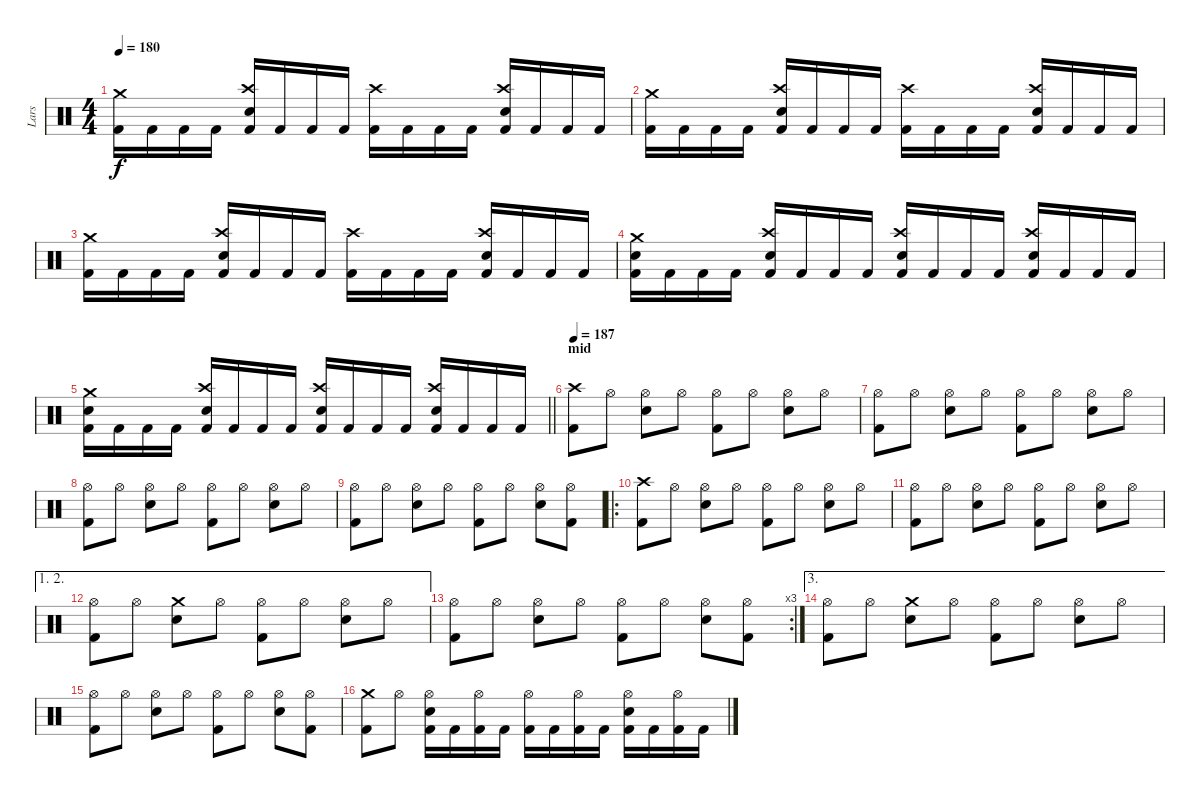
\track ("Lars" "Lars") {instrument percussion}
\staff {score}
\articulation defaults
\ts (4 4)
\tempo 180
\clef neutral
\ks c
("Crash medium (hit)" "Kick (hit) 2").16{dy f} "Kick (hit) 2".16 "Kick (hit) 2".16 "Kick (hit) 2".16 ("Crash high (hit)" "Snare (hit) 2" "Kick (hit) 2").16 "Kick (hit) 2".16 "Kick (hit) 2".16 "Kick (hit) 2".16 ("Crash high (hit)" "Kick (hit) 2").16 "Kick (hit) 2".16 "Kick (hit) 2".16 "Kick (hit) 2".16 ("Crash high (hit)" "Snare (hit) 2" "Kick (hit) 2").16 "Kick (hit) 2".16 "Kick (hit) 2".16 "Kick (hit) 2".16 |
("Crash medium (hit)" "Kick (hit) 2").16 "Kick (hit) 2".16 "Kick (hit) 2".16 "Kick (hit) 2".16 ("Crash high (hit)" "Snare (hit) 2" "Kick (hit) 2").16 "Kick (hit) 2".16 "Kick (hit) 2".16 "Kick (hit) 2".16 ("Crash high (hit)" "Kick (hit) 2").16 "Kick (hit) 2".16 "Kick (hit) 2".16 "Kick (hit) 2".16 ("Crash high (hit)" "Snare (hit) 2" "Kick (hit) 2").16 "Kick (hit) 2".16 "Kick (hit) 2".16 "Kick (hit) 2".16 |
("Crash medium (hit)" "Kick (hit) 2").16 "Kick (hit) 2".16 "Kick (hit) 2".16 "Kick (hit) 2".16 ("Crash high (hit)" "Snare (hit) 2" "Kick (hit) 2").16 "Kick (hit) 2".16 "Kick (hit) 2".16 "Kick (hit) 2".16 ("Crash high (hit)" "Kick (hit) 2").16 "Kick (hit) 2".16 "Kick (hit) 2".16 "Kick (hit) 2".16 ("Crash high (hit)" "Snare (hit) 2" "Kick (hit) 2").16 "Kick (hit) 2".16 "Kick (hit) 2".16 "Kick (hit) 2".16 |
("Crash medium (hit)" "Snare (hit) 2" "Kick (hit) 2").16 "Kick (hit) 2".16 "Kick (hit) 2".16 "Kick (hit) 2".16 ("Crash high (hit)" "Snare (hit) 2" "Kick (hit) 2").16 "Kick (hit) 2".16 "Kick (hit) 2".16 "Kick (hit) 2".16 ("Crash high (hit)" "Snare (hit) 2" "Kick (hit) 2").16 "Kick (hit) 2".16 "Kick (hit) 2".16 "Kick (hit) 2".16 ("Crash high (hit)" "Snare (hit) 2" "Kick (hit) 2").16 "Kick (hit) 2".16 "Kick (hit) 2".16 "Kick (hit) 2".16 |
\barLineRight lightlight
("Crash medium (hit)" "Snare (hit) 2" "Kick (hit) 2").16 "Kick (hit) 2".16 "Kick (hit) 2".16 "Kick (hit) 2".16 ("Crash high (hit)" "Snare (hit) 2" "Kick (hit) 2").16 "Kick (hit) 2".16 "Kick (hit) 2".16 "Kick (hit) 2".16 ("Crash high (hit)" "Snare (hit) 2" "Kick (hit) 2").16 "Kick (hit) 2".16 "Kick (hit) 2".16 "Kick (hit) 2".16 ("Crash high (hit)" "Snare (hit) 2" "Kick (hit) 2").16 "Kick (hit) 2".16 "Kick (hit) 2".16 "Kick (hit) 2".16 |
\section ("" "mid")
\tempo 187
("Crash high (hit)" "Kick (hit) 2").8 "Hi-Hat (open)".8 ("Hi-Hat (open)" "Snare (hit) 2").8 "Hi-Hat (open)".8 ("Hi-Hat (open)" "Kick (hit) 2").8 "Hi-Hat (open)".8 ("Hi-Hat (open)" "Snare (hit) 2").8 "Hi-Hat (open)".8 |
("Hi-Hat (open)" "Kick (hit) 2").8 "Hi-Hat (open)".8 ("Hi-Hat (open)" "Snare (hit) 2").8 "Hi-Hat (open)".8 ("Hi-Hat (open)" "Kick (hit) 2").8 "Hi-Hat (open)".8 ("Hi-Hat (open)" "Snare (hit) 2").8 "Hi-Hat (open)".8 |
("Hi-Hat (open)" "Kick (hit) 2").8 "Hi-Hat (open)".8 ("Hi-Hat (open)" "Snare (hit) 2").8 "Hi-Hat (open)".8 ("Hi-Hat (open)" "Kick (hit) 2").8 "Hi-Hat (open)".8 ("Hi-Hat (open)" "Snare (hit) 2").8 "Hi-Hat (open)".8 |
("Hi-Hat (open)" "Kick (hit) 2").8 "Hi-Hat (open)".8 ("Hi-Hat (open)" "Snare (hit) 2").8 "Hi-Hat (open)".8 ("Hi-Hat (open)" "Kick (hit) 2").8 "Hi-Hat (open)".8 ("Hi-Hat (open)" "Snare (hit) 2").8 ("Hi-Hat (open)" "Kick (hit) 2").8 |
\ro
("Crash high (hit)" "Kick (hit) 2").8 "Hi-Hat (open)".8 ("Hi-Hat (open)" "Snare (hit) 2").8 "Hi-Hat (open)".8 ("Hi-Hat (open)" "Kick (hit) 2").8 "Hi-Hat (open)".8 ("Hi-Hat (open)" "Snare (hit) 2").8 "Hi-Hat (open)".8 |
("Hi-Hat (open)" "Kick (hit) 2").8 "Hi-Hat (open)".8 ("Hi-Hat (open)" "Snare (hit) 2").8 "Hi-Hat (open)".8 ("Hi-Hat (open)" "Kick (hit) 2").8 "Hi-Hat (open)".8 ("Hi-Hat (open)" "Snare (hit) 2").8 "Hi-Hat (open)".8 |
\ae (1 2)
("Hi-Hat (open)" "Kick (hit) 2").8 "Hi-Hat (open)".8 ("Crash medium (hit)" "Snare (hit) 2").8 "Hi-Hat (open)".8 ("Hi-Hat (open)" "Kick (hit) 2").8 "Hi-Hat (open)".8 ("Hi-Hat (open)" "Snare (hit) 2").8 "Hi-Hat (open)".8 |
\rc 3
("Hi-Hat (open)" "Kick (hit) 2").8 "Hi-Hat (open)".8 ("Hi-Hat (open)" "Snare (hit) 2").8 "Hi-Hat (open)".8 ("Hi-Hat (open)" "Kick (hit) 2").8 "Hi-Hat (open)".8 ("Hi-Hat (open)" "Snare (hit) 2").8 ("Hi-Hat (open)" "Kick (hit) 2").8 |
\ae 3
("Hi-Hat (open)" "Kick (hit) 2").8 "Hi-Hat (open)".8 ("Crash medium (hit)" "Snare (hit) 2").8 "Hi-Hat (open)".8 ("Hi-Hat (open)" "Kick (hit) 2").8 "Hi-Hat (open)".8 ("Hi-Hat (open)" "Snare (hit) 2").8 "Hi-Hat (open)".8 |
("Hi-Hat (open)" "Kick (hit) 2").8 "Hi-Hat (open)".8 ("Hi-Hat (open)" "Snare (hit) 2").8 "Hi-Hat (open)".8 ("Hi-Hat (open)" "Kick (hit) 2").8 "Hi-Hat (open)".8 ("Hi-Hat (open)" "Snare (hit) 2").8 ("Hi-Hat (open)" "Kick (hit) 2").8 |
("Crash medium (hit)" "Kick (hit) 2").8 "Hi-Hat (open)".8 ("Hi-Hat (open)" "Snare (hit) 2" "Kick (hit) 2").16 "Kick (hit) 2".16 ("Hi-Hat (open)" "Kick (hit) 2").16 "Kick (hit) 2".16 ("Hi-Hat (open)" "Kick (hit) 2").16 "Kick (hit) 2".16 ("Hi-Hat (open)" "Kick (hit) 2").16 "Kick (hit) 2".16 ("Hi-Hat (open)" "Snare (hit) 2" "Kick (hit) 2").16 "Kick (hit) 2".16 ("Hi-Hat (open)" "Kick (hit) 2").16 "Kick (hit) 2".16
